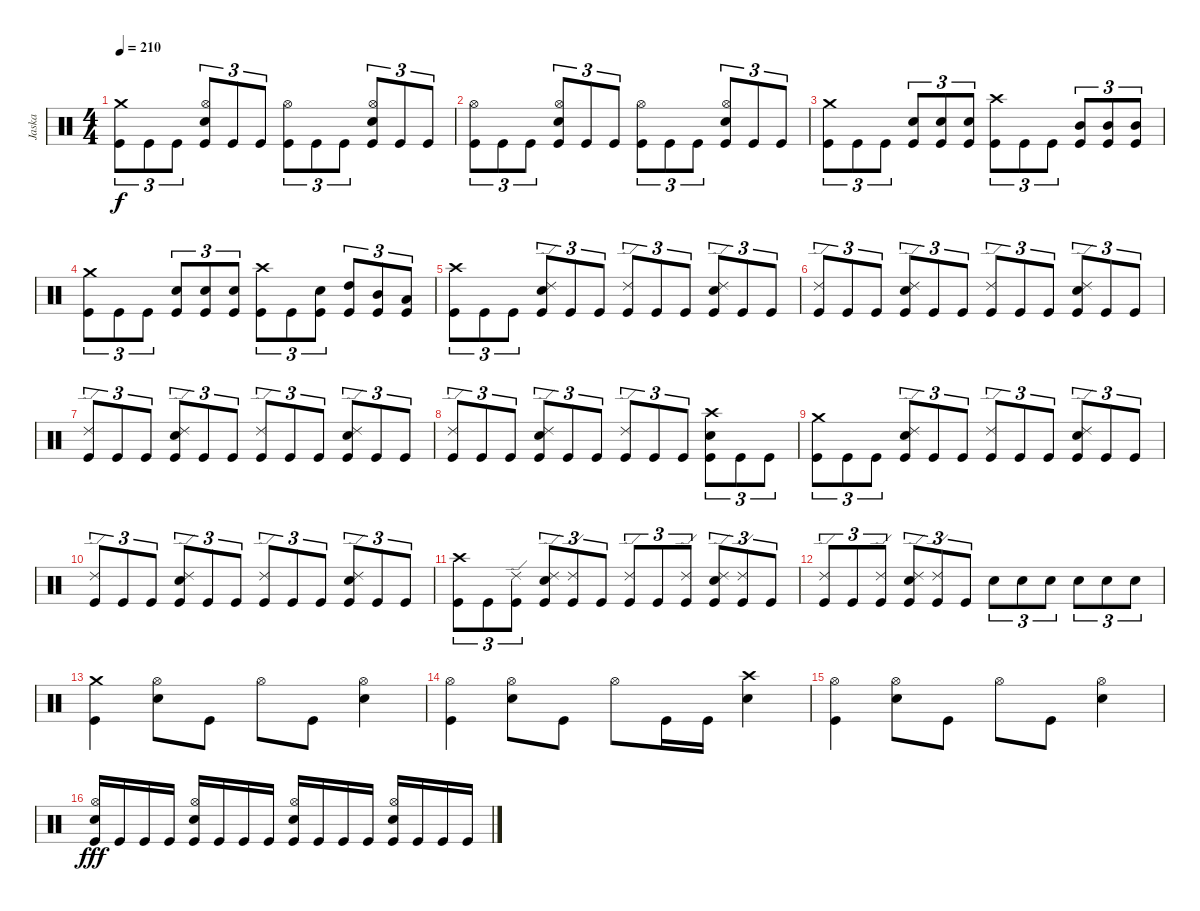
\track ("Jaska" "Jaska") {instrument percussion}
\staff {score}
\articulation defaults
\ts (4 4)
\tempo 210
\clef neutral
\ks c
("Crash medium (hit)" "Kick (hit)").8{tu (3 2) dy f} "Kick (hit)".8{tu (3 2)} "Kick (hit)".8{tu (3 2)} ("Hi-Hat (open)" "Electric Snare (hit)" "Kick (hit)").8{tu (3 2)} "Kick (hit)".8{tu (3 2)} "Kick (hit)".8{tu (3 2)} ("Hi-Hat (open)" "Kick (hit)").8{tu (3 2)} "Kick (hit)".8{tu (3 2)} "Kick (hit)".8{tu (3 2)} ("Hi-Hat (open)" "Electric Snare (hit)" "Kick (hit)").8{tu (3 2)} "Kick (hit)".8{tu (3 2)} "Kick (hit)".8{tu (3 2)} |
("Hi-Hat (open)" "Kick (hit)").8{tu (3 2)} "Kick (hit)".8{tu (3 2)} "Kick (hit)".8{tu (3 2)} ("Hi-Hat (open)" "Electric Snare (hit)" "Kick (hit)").8{tu (3 2)} "Kick (hit)".8{tu (3 2)} "Kick (hit)".8{tu (3 2)} ("Hi-Hat (open)" "Kick (hit)").8{tu (3 2)} "Kick (hit)".8{tu (3 2)} "Kick (hit)".8{tu (3 2)} ("Hi-Hat (open)" "Electric Snare (hit)" "Kick (hit)").8{tu (3 2)} "Kick (hit)".8{tu (3 2)} "Kick (hit)".8{tu (3 2)} |
("Crash medium (hit)" "Kick (hit)").8{tu (3 2)} "Kick (hit)".8{tu (3 2)} "Kick (hit)".8{tu (3 2)} ("Electric Snare (hit)" "Kick (hit)").8{tu (3 2)} ("Electric Snare (hit)" "Kick (hit)").8{tu (3 2)} ("Electric Snare (hit)" "Kick (hit)").8{tu (3 2)} ("Crash high (hit)" "Kick (hit)").8{tu (3 2)} "Kick (hit)".8{tu (3 2)} "Kick (hit)".8{tu (3 2)} ("Mid Tom (hit)" "Kick (hit)").8{tu (3 2)} ("Mid Tom (hit)" "Kick (hit)").8{tu (3 2)} ("Mid Tom (hit)" "Kick (hit)").8{tu (3 2)} |
("Crash medium (hit)" "Kick (hit)").8{tu (3 2)} "Kick (hit)".8{tu (3 2)} "Kick (hit)".8{tu (3 2)} ("Electric Snare (hit)" "Kick (hit)").8{tu (3 2)} ("Electric Snare (hit)" "Kick (hit)").8{tu (3 2)} ("Electric Snare (hit)" "Kick (hit)").8{tu (3 2)} ("Crash high (hit)" "Kick (hit)").8{tu (3 2)} "Kick (hit)".8{tu (3 2)} ("Electric Snare (hit)" "Kick (hit)").8{tu (3 2)} ("High Tom (hit)" "Kick (hit)").8{tu (3 2)} ("Mid Tom (hit)" "Kick (hit)").8{tu (3 2)} ("Low Tom (hit)" "Kick (hit)").8{tu (3 2)} |
("Crash high (hit)" "Kick (hit)").8{tu (3 2)} "Kick (hit)".8{tu (3 2)} "Kick (hit)".8{tu (3 2)} ("Ride (edge) 2" "Electric Snare (hit)" "Kick (hit)").8{tu (3 2)} "Kick (hit)".8{tu (3 2)} "Kick (hit)".8{tu (3 2)} ("Ride (edge) 2" "Kick (hit)").8{tu (3 2)} "Kick (hit)".8{tu (3 2)} "Kick (hit)".8{tu (3 2)} ("Ride (edge) 2" "Electric Snare (hit)" "Kick (hit)").8{tu (3 2)} "Kick (hit)".8{tu (3 2)} "Kick (hit)".8{tu (3 2)} |
("Ride (edge) 2" "Kick (hit)").8{tu (3 2)} "Kick (hit)".8{tu (3 2)} "Kick (hit)".8{tu (3 2)} ("Ride (edge) 2" "Electric Snare (hit)" "Kick (hit)").8{tu (3 2)} "Kick (hit)".8{tu (3 2)} "Kick (hit)".8{tu (3 2)} ("Ride (edge) 2" "Kick (hit)").8{tu (3 2)} "Kick (hit)".8{tu (3 2)} "Kick (hit)".8{tu (3 2)} ("Ride (edge) 2" "Electric Snare (hit)" "Kick (hit)").8{tu (3 2)} "Kick (hit)".8{tu (3 2)} "Kick (hit)".8{tu (3 2)} |
("Ride (edge) 2" "Kick (hit)").8{tu (3 2)} "Kick (hit)".8{tu (3 2)} "Kick (hit)".8{tu (3 2)} ("Ride (edge) 2" "Electric Snare (hit)" "Kick (hit)").8{tu (3 2)} "Kick (hit)".8{tu (3 2)} "Kick (hit)".8{tu (3 2)} ("Ride (edge) 2" "Kick (hit)").8{tu (3 2)} "Kick (hit)".8{tu (3 2)} "Kick (hit)".8{tu (3 2)} ("Ride (edge) 2" "Electric Snare (hit)" "Kick (hit)").8{tu (3 2)} "Kick (hit)".8{tu (3 2)} "Kick (hit)".8{tu (3 2)} |
("Ride (edge) 2" "Kick (hit)").8{tu (3 2)} "Kick (hit)".8{tu (3 2)} "Kick (hit)".8{tu (3 2)} ("Ride (edge) 2" "Electric Snare (hit)" "Kick (hit)").8{tu (3 2)} "Kick (hit)".8{tu (3 2)} "Kick (hit)".8{tu (3 2)} ("Ride (edge) 2" "Kick (hit)").8{tu (3 2)} "Kick (hit)".8{tu (3 2)} "Kick (hit)".8{tu (3 2)} ("Crash high (hit)" "Electric Snare (hit)" "Kick (hit)").8{tu (3 2)} "Kick (hit)".8{tu (3 2)} "Kick (hit)".8{tu (3 2)} |
("Crash medium (hit)" "Kick (hit)").8{tu (3 2)} "Kick (hit)".8{tu (3 2)} "Kick (hit)".8{tu (3 2)} ("Ride (edge) 2" "Electric Snare (hit)" "Kick (hit)").8{tu (3 2)} "Kick (hit)".8{tu (3 2)} "Kick (hit)".8{tu (3 2)} ("Ride (edge) 2" "Kick (hit)").8{tu (3 2)} "Kick (hit)".8{tu (3 2)} "Kick (hit)".8{tu (3 2)} ("Ride (edge) 2" "Electric Snare (hit)" "Kick (hit)").8{tu (3 2)} "Kick (hit)".8{tu (3 2)} "Kick (hit)".8{tu (3 2)} |
("Ride (edge) 2" "Kick (hit)").8{tu (3 2)} "Kick (hit)".8{tu (3 2)} "Kick (hit)".8{tu (3 2)} ("Ride (edge) 2" "Electric Snare (hit)" "Kick (hit)").8{tu (3 2)} "Kick (hit)".8{tu (3 2)} "Kick (hit)".8{tu (3 2)} ("Ride (edge) 2" "Kick (hit)").8{tu (3 2)} "Kick (hit)".8{tu (3 2)} "Kick (hit)".8{tu (3 2)} ("Ride (edge) 2" "Electric Snare (hit)" "Kick (hit)").8{tu (3 2)} "Kick (hit)".8{tu (3 2)} "Kick (hit)".8{tu (3 2)} |
("Crash high (hit)" "Kick (hit)").8{tu (3 2)} "Kick (hit)".8{tu (3 2)} ("Ride (edge) 2" "Kick (hit)").8{tu (3 2)} ("Ride (edge) 2" "Electric Snare (hit)" "Kick (hit)").8{tu (3 2)} ("Ride (edge) 2" "Kick (hit)").8{tu (3 2)} "Kick (hit)".8{tu (3 2)} ("Ride (edge) 2" "Kick (hit)").8{tu (3 2)} "Kick (hit)".8{tu (3 2)} ("Ride (edge) 2" "Kick (hit)").8{tu (3 2)} ("Ride (edge) 2" "Electric Snare (hit)" "Kick (hit)").8{tu (3 2)} ("Ride (edge) 2" "Kick (hit)").8{tu (3 2)} "Kick (hit)".8{tu (3 2)} |
("Ride (edge) 2" "Kick (hit)").8{tu (3 2)} "Kick (hit)".8{tu (3 2)} ("Ride (edge) 2" "Kick (hit)").8{tu (3 2)} ("Ride (edge) 2" "Electric Snare (hit)" "Kick (hit)").8{tu (3 2)} ("Ride (edge) 2" "Kick (hit)").8{tu (3 2)} "Kick (hit)".8{tu (3 2)} "Electric Snare (hit)".8{tu (3 2)} "Electric Snare (hit)".8{tu (3 2)} "Electric Snare (hit)".8{tu (3 2)} "Electric Snare (hit)".8{tu (3 2)} "Electric Snare (hit)".8{tu (3 2)} "Electric Snare (hit)".8{tu (3 2)} |
("Crash medium (hit)" "Kick (hit)").4 ("Hi-Hat (open)" "Electric Snare (hit)").8 "Kick (hit)".8 "Hi-Hat (open)".8 "Kick (hit)".8 ("Hi-Hat (open)" "Electric Snare (hit)").4 |
("Hi-Hat (open)" "Kick (hit)").4 ("Hi-Hat (open)" "Electric Snare (hit)").8 "Kick (hit)".8 "Hi-Hat (open)".8 "Kick (hit)".16 "Kick (hit)".16 ("Crash high (hit)" "Electric Snare (hit)").4 |
("Hi-Hat (open)" "Kick (hit)").4 ("Hi-Hat (open)" "Electric Snare (hit)").8 "Kick (hit)".8 "Hi-Hat (open)".8 "Kick (hit)".8 ("Hi-Hat (open)" "Electric Snare (hit)").4 |
("Hi-Hat (open)" "Electric Snare (hit)" "Kick (hit)").16{dy fff} "Kick (hit)".16 "Kick (hit)".16 "Kick (hit)".16 ("Hi-Hat (open)" "Electric Snare (hit)" "Kick (hit)").16 "Kick (hit)".16 "Kick (hit)".16 "Kick (hit)".16 ("Hi-Hat (open)" "Electric Snare (hit)" "Kick (hit)").16 "Kick (hit)".16 "Kick (hit)".16 "Kick (hit)".16 ("Hi-Hat (open)" "Electric Snare (hit)" "Kick (hit)").16 "Kick (hit)".16 "Kick (hit)".16 "Kick (hit)".16
